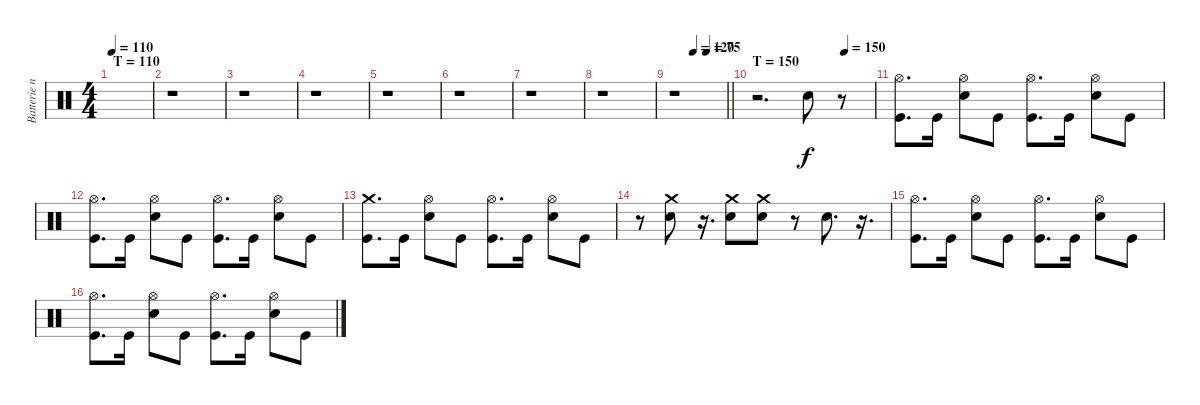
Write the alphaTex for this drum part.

\track ("Batterie n°3" "Batterie n") {instrument percussion}
\staff {score}
\articulation defaults
\ts (4 4)
\section ("" "T = 110")
\tempo 110
\clef neutral
\ks c
|
r.1 |
r.1 |
r.1 |
r.1 |
r.1 |
r.1 |
r.1 |
\tempo (120 0.375)
\tempo (75 0.625)
\barLineRight lightlight
r.1 |
\section ("" "T = 150")
\tempo (150 0.75)
r.2{d} "Snare (hit) 2".8 r.8 |
("Kick (hit)" "Hi-Hat (open)").8{d} "Kick (hit)".16 ("Snare (hit) 2" "Hi-Hat (open)").8 "Kick (hit)".8 ("Kick (hit)" "Hi-Hat (open)").8{d} "Kick (hit)".16 ("Snare (hit) 2" "Hi-Hat (open)").8 "Kick (hit)".8 |
("Kick (hit)" "Hi-Hat (open)").8{d} "Kick (hit)".16 ("Snare (hit) 2" "Hi-Hat (open)").8 "Kick (hit)".8 ("Kick (hit)" "Hi-Hat (open)").8{d} "Kick (hit)".16 ("Snare (hit) 2" "Hi-Hat (open)").8 "Kick (hit)".8 |
("Kick (hit)" "Crash medium (hit)").8{d} "Kick (hit)".16 ("Snare (hit) 2" "Hi-Hat (open)").8 "Kick (hit)".8 ("Kick (hit)" "Hi-Hat (open)").8{d} "Kick (hit)".16 ("Snare (hit) 2" "Hi-Hat (open)").8 "Kick (hit)".8 |
r.8 ("Snare (hit) 2" "Crash medium (hit)").8 r.16{d} ("Snare (hit) 2" "Crash medium (hit)").8 ("Snare (hit) 2" "Crash medium (hit)").8 r.8 "Snare (hit) 2".8{d} r.16{d} |
("Kick (hit)" "Hi-Hat (open)").8{d} "Kick (hit)".16 ("Snare (hit) 2" "Hi-Hat (open)").8 "Kick (hit)".8 ("Kick (hit)" "Hi-Hat (open)").8{d} "Kick (hit)".16 ("Snare (hit) 2" "Hi-Hat (open)").8 "Kick (hit)".8 |
("Kick (hit)" "Hi-Hat (open)").8{d} "Kick (hit)".16 ("Snare (hit) 2" "Hi-Hat (open)").8 "Kick (hit)".8 ("Kick (hit)" "Hi-Hat (open)").8{d} "Kick (hit)".16 ("Snare (hit) 2" "Hi-Hat (open)").8 "Kick (hit)".8
